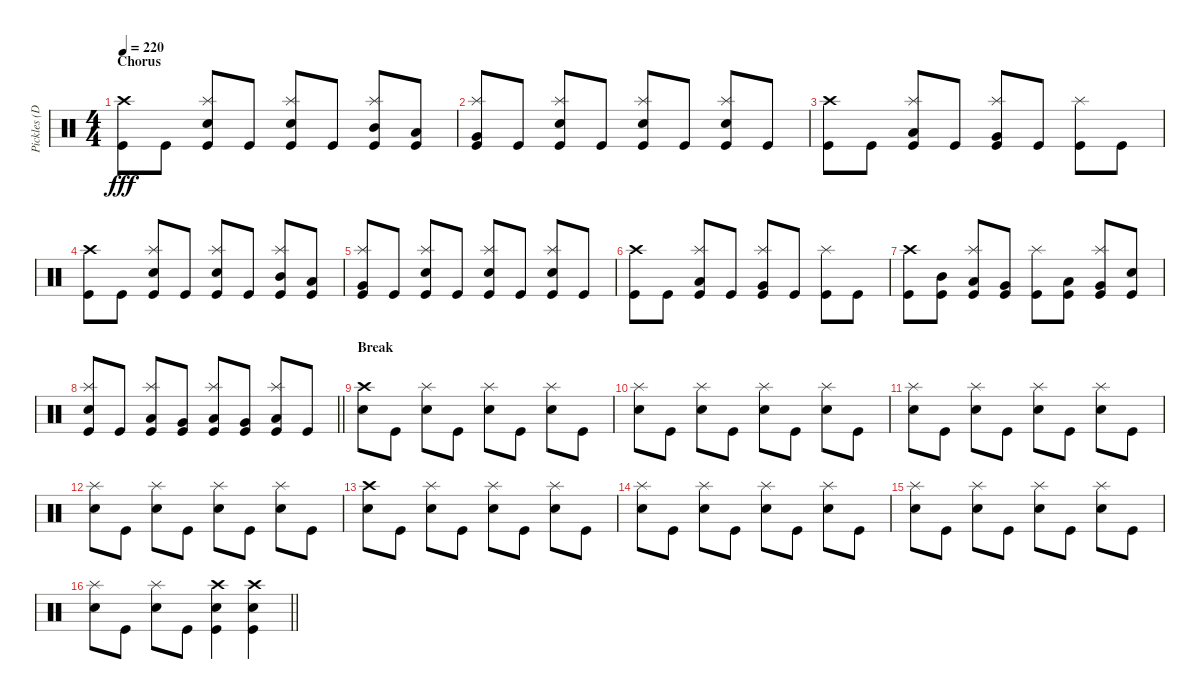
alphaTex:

\track ("Pickles (Drums)" "Pickles (D") {instrument percussion}
\staff {score}
\articulation defaults
\ts (4 4)
\section ("" "Chorus")
\tempo 220
\clef neutral
\ks c
("Crash high (hit)" "Kick (hit)").8{dy fff} "Kick (hit)".8 ("Splash (hit)" "Electric Snare (hit)" "Kick (hit)").8 "Kick (hit)".8 ("Splash (hit)" "Electric Snare (hit)" "Kick (hit)").8 "Kick (hit)".8 ("Splash (hit)" "Mid Tom (hit)" "Kick (hit)").8 ("Low Tom (hit)" "Kick (hit)").8 |
("Splash (hit)" "Very Low Tom (hit)" "Kick (hit)").8 "Kick (hit)".8 ("Splash (hit)" "Electric Snare (hit)" "Kick (hit)").8 "Kick (hit)".8 ("Splash (hit)" "Electric Snare (hit)" "Kick (hit)").8 "Kick (hit)".8 ("Splash (hit)" "Electric Snare (hit)" "Kick (hit)").8 "Kick (hit)".8 |
("Crash high (hit)" "Kick (hit)").8 "Kick (hit)".8 ("Splash (hit)" "Low Tom (hit)" "Kick (hit)").8 "Kick (hit)".8 ("Splash (hit)" "Very Low Tom (hit)" "Kick (hit)").8 "Kick (hit)".8 ("Splash (hit)" "Kick (hit)").8 "Kick (hit)".8 |
("Crash high (hit)" "Kick (hit)").8 "Kick (hit)".8 ("Splash (hit)" "Electric Snare (hit)" "Kick (hit)").8 "Kick (hit)".8 ("Splash (hit)" "Electric Snare (hit)" "Kick (hit)").8 "Kick (hit)".8 ("Splash (hit)" "Mid Tom (hit)" "Kick (hit)").8 ("Low Tom (hit)" "Kick (hit)").8 |
("Splash (hit)" "Very Low Tom (hit)" "Kick (hit)").8 "Kick (hit)".8 ("Splash (hit)" "Electric Snare (hit)" "Kick (hit)").8 "Kick (hit)".8 ("Splash (hit)" "Electric Snare (hit)" "Kick (hit)").8 "Kick (hit)".8 ("Splash (hit)" "Electric Snare (hit)" "Kick (hit)").8 "Kick (hit)".8 |
("Crash high (hit)" "Kick (hit)").8 "Kick (hit)".8 ("Splash (hit)" "Low Tom (hit)" "Kick (hit)").8 "Kick (hit)".8 ("Splash (hit)" "Very Low Tom (hit)" "Kick (hit)").8 "Kick (hit)".8 ("Splash (hit)" "Kick (hit)").8 "Kick (hit)".8 |
("Crash high (hit)" "Kick (hit)").8 ("Mid Tom (hit)" "Kick (hit)").8 ("Splash (hit)" "Low Tom (hit)" "Kick (hit)").8 ("Very Low Tom (hit)" "Kick (hit)").8 ("Splash (hit)" "Kick (hit)").8 ("Low Tom (hit)" "Kick (hit)").8 ("Splash (hit)" "Very Low Tom (hit)" "Kick (hit)").8 ("Electric Snare (hit)" "Kick (hit)").8 |
\barLineRight lightlight
("Splash (hit)" "Electric Snare (hit)" "Kick (hit)").8 "Kick (hit)".8 ("Splash (hit)" "Low Tom (hit)" "Kick (hit)").8 ("Very Low Tom (hit)" "Kick (hit)").8 ("Splash (hit)" "Low Floor Tom (hit)" "Kick (hit)").8 ("Very Low Tom (hit)" "Kick (hit)").8 ("Splash (hit)" "Low Floor Tom (hit)" "Kick (hit)").8 "Kick (hit)".8 |
\section ("" "Break")
("Crash high (hit)" "Electric Snare (hit)").8 "Kick (hit)".8 ("Splash (hit)" "Electric Snare (hit)").8 "Kick (hit)".8 ("Splash (hit)" "Electric Snare (hit)").8 "Kick (hit)".8 ("Splash (hit)" "Electric Snare (hit)").8 "Kick (hit)".8 |
("Splash (hit)" "Electric Snare (hit)").8 "Kick (hit)".8 ("Splash (hit)" "Electric Snare (hit)").8 "Kick (hit)".8 ("Splash (hit)" "Electric Snare (hit)").8 "Kick (hit)".8 ("Splash (hit)" "Electric Snare (hit)").8 "Kick (hit)".8 |
("Splash (hit)" "Electric Snare (hit)").8 "Kick (hit)".8 ("Splash (hit)" "Electric Snare (hit)").8 "Kick (hit)".8 ("Splash (hit)" "Electric Snare (hit)").8 "Kick (hit)".8 ("Splash (hit)" "Electric Snare (hit)").8 "Kick (hit)".8 |
("Splash (hit)" "Electric Snare (hit)").8 "Kick (hit)".8 ("Splash (hit)" "Electric Snare (hit)").8 "Kick (hit)".8 ("Splash (hit)" "Electric Snare (hit)").8 "Kick (hit)".8 ("Splash (hit)" "Electric Snare (hit)").8 "Kick (hit)".8 |
("Crash high (hit)" "Electric Snare (hit)").8 "Kick (hit)".8 ("Splash (hit)" "Electric Snare (hit)").8 "Kick (hit)".8 ("Splash (hit)" "Electric Snare (hit)").8 "Kick (hit)".8 ("Splash (hit)" "Electric Snare (hit)").8 "Kick (hit)".8 |
("Splash (hit)" "Electric Snare (hit)").8 "Kick (hit)".8 ("Splash (hit)" "Electric Snare (hit)").8 "Kick (hit)".8 ("Splash (hit)" "Electric Snare (hit)").8 "Kick (hit)".8 ("Splash (hit)" "Electric Snare (hit)").8 "Kick (hit)".8 |
("Splash (hit)" "Electric Snare (hit)").8 "Kick (hit)".8 ("Splash (hit)" "Electric Snare (hit)").8 "Kick (hit)".8 ("Splash (hit)" "Electric Snare (hit)").8 "Kick (hit)".8 ("Splash (hit)" "Electric Snare (hit)").8 "Kick (hit)".8 |
\barLineRight lightlight
("Splash (hit)" "Electric Snare (hit)").8 "Kick (hit)".8 ("Splash (hit)" "Electric Snare (hit)").8 "Kick (hit)".8 ("Crash high (hit)" "Electric Snare (hit)" "Kick (hit)").4 ("Crash high (hit)" "Electric Snare (hit)" "Kick (hit)").4
